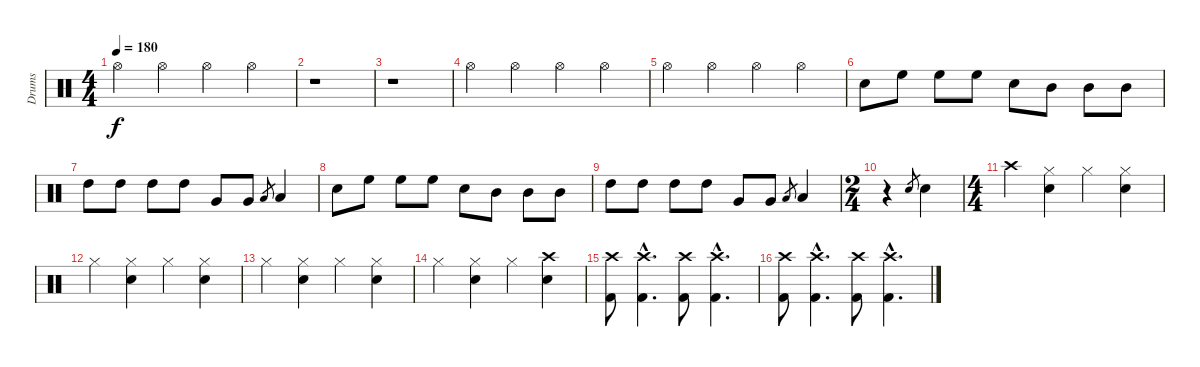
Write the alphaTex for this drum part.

\track ("Drums" "Drums") {instrument percussion}
\staff {score}
\articulation defaults
\ts (4 4)
\tempo 180
\clef neutral
\ks c "Hi-Hat (open)".4{dy f} "Hi-Hat (open)".4 "Hi-Hat (open)".4 "Hi-Hat (open)".4
|
r.1 |
r.1 |
"Hi-Hat (open)".4 "Hi-Hat (open)".4 "Hi-Hat (open)".4 "Hi-Hat (open)".4 |
"Hi-Hat (open)".4 "Hi-Hat (open)".4 "Hi-Hat (open)".4 "Hi-Hat (open)".4 |
"Snare (hit) 2".8 "High Floor Tom (hit)".8 "High Floor Tom (hit)".8 "High Floor Tom (hit)".8 "Snare (hit) 2".8 "Mid Tom (hit)".8 "Mid Tom (hit)".8 "Mid Tom (hit)".8 |
"High Tom (hit)".8 "High Tom (hit)".8 "High Tom (hit)".8 "High Tom (hit)".8 "Very Low Tom (hit)".8 "Very Low Tom (hit)".8 "Low Floor Tom (hit)".8{gr} "Low Floor Tom (hit)".4 |
"Snare (hit) 2".8 "High Floor Tom (hit)".8 "High Floor Tom (hit)".8 "High Floor Tom (hit)".8 "Snare (hit) 2".8 "Mid Tom (hit)".8 "Mid Tom (hit)".8 "Mid Tom (hit)".8 |
"High Tom (hit)".8 "High Tom (hit)".8 "High Tom (hit)".8 "High Tom (hit)".8 "Very Low Tom (hit)".8 "Very Low Tom (hit)".8 "Low Floor Tom (hit)".8{gr} "Low Floor Tom (hit)".4 |
\ts (2 4)
r.4 "Snare (hit) 2".8{gr} "Snare (hit) 2".4 |
\ts (4 4)
"Crash high (hit)".4 ("Hi-Hat (closed)" "Snare (hit) 2").4 "Hi-Hat (closed)".4 ("Hi-Hat (closed)" "Snare (hit) 2").4 |
"Hi-Hat (closed)".4 ("Hi-Hat (closed)" "Snare (hit) 2").4 "Hi-Hat (closed)".4 ("Hi-Hat (closed)" "Snare (hit) 2").4 |
"Hi-Hat (closed)".4 ("Hi-Hat (closed)" "Snare (hit) 2").4 "Hi-Hat (closed)".4 ("Hi-Hat (closed)" "Snare (hit) 2").4 |
"Hi-Hat (closed)".4 ("Hi-Hat (closed)" "Snare (hit) 2").4 "Hi-Hat (closed)".4 ("Crash high (hit)" "Snare (hit) 2").4 |
("Crash high (hit)" "Kick (hit) 2").8 ("Crash high (hit)"{hac} "Kick (hit) 2"{hac}).4{d} ("Crash high (hit)" "Kick (hit) 2").8 ("Crash high (hit)"{hac} "Kick (hit) 2"{hac}).4{d} |
("Crash high (hit)" "Kick (hit) 2").8 ("Crash high (hit)"{hac} "Kick (hit) 2"{hac}).4{d} ("Crash high (hit)" "Kick (hit) 2").8 ("Crash high (hit)"{hac} "Kick (hit) 2"{hac}).4{d}
